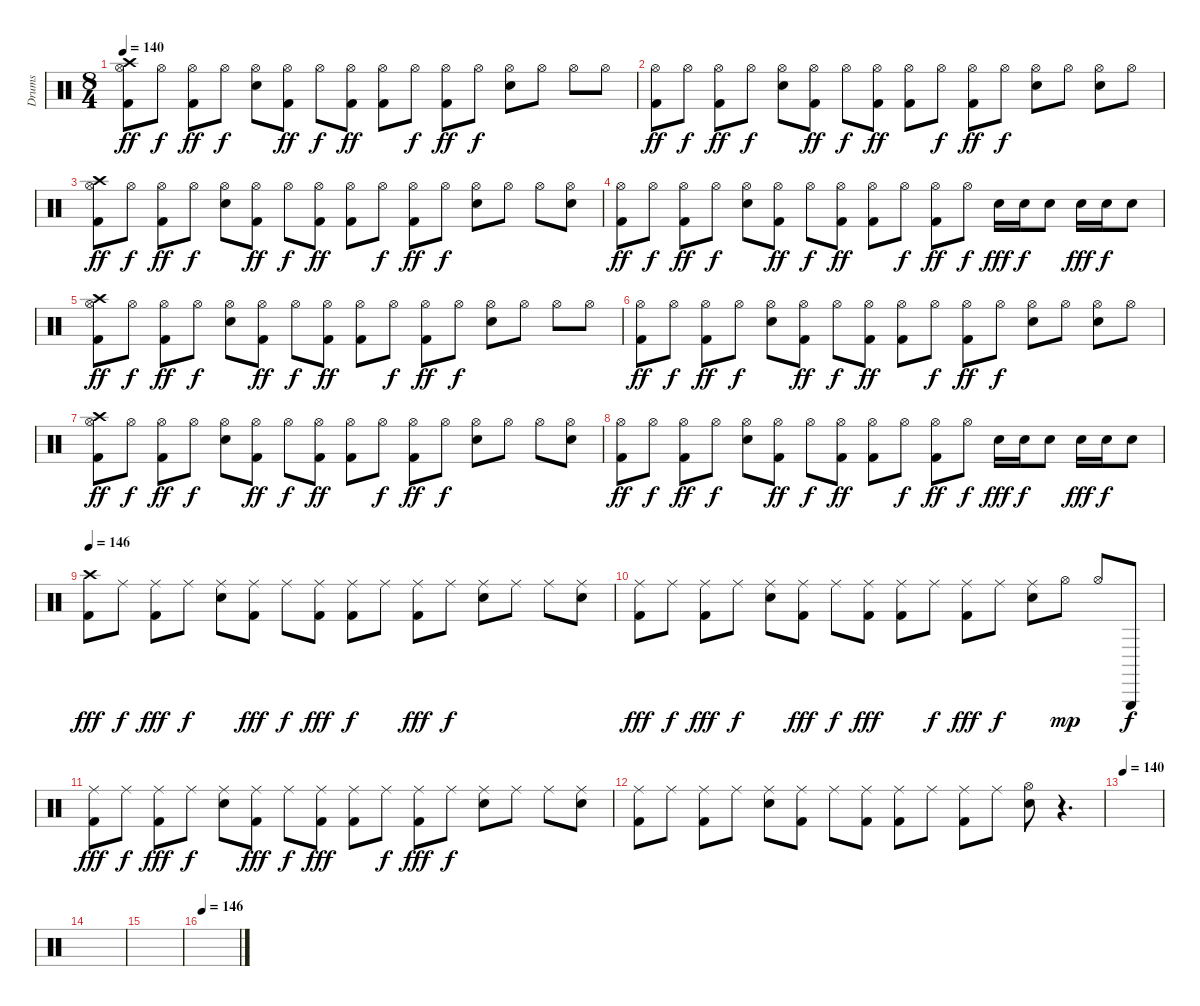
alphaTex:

\track ("Drums" "Drums") {instrument percussion}
\staff {score}
\articulation defaults
\ts (8 4)
\tempo 140
\clef neutral
\ks c
("Crash high (hit)" "Hi-Hat (open)" "Kick (hit) 2").8{dy ff} "Hi-Hat (open)".8{dy f} ("Hi-Hat (open)" "Kick (hit) 2").8{dy ff} "Hi-Hat (open)".8{dy f} ("Hi-Hat (open)" "Snare (hit) 2").8 ("Hi-Hat (open)" "Kick (hit) 2").8{dy ff} "Hi-Hat (open)".8{dy f} ("Hi-Hat (open)" "Kick (hit) 2").8{dy ff} ("Hi-Hat (open)" "Kick (hit) 2").8 "Hi-Hat (open)".8{dy f} ("Hi-Hat (open)" "Kick (hit) 2").8{dy ff} "Hi-Hat (open)".8{dy f} ("Hi-Hat (open)" "Snare (hit) 2").8 "Hi-Hat (open)".8 "Hi-Hat (open)".8 "Hi-Hat (open)".8 |
("Hi-Hat (open)" "Kick (hit) 2").8{dy ff} "Hi-Hat (open)".8{dy f} ("Hi-Hat (open)" "Kick (hit) 2").8{dy ff} "Hi-Hat (open)".8{dy f} ("Hi-Hat (open)" "Snare (hit) 2").8 ("Hi-Hat (open)" "Kick (hit) 2").8{dy ff} "Hi-Hat (open)".8{dy f} ("Hi-Hat (open)" "Kick (hit) 2").8{dy ff} ("Hi-Hat (open)" "Kick (hit) 2").8 "Hi-Hat (open)".8{dy f} ("Hi-Hat (open)" "Kick (hit) 2").8{dy ff} "Hi-Hat (open)".8{dy f} ("Hi-Hat (open)" "Snare (hit) 2").8 "Hi-Hat (open)".8 ("Hi-Hat (open)" "Snare (hit) 2").8 "Hi-Hat (open)".8 |
("Crash high (hit)" "Hi-Hat (open)" "Kick (hit) 2").8{dy ff} "Hi-Hat (open)".8{dy f} ("Hi-Hat (open)" "Kick (hit) 2").8{dy ff} "Hi-Hat (open)".8{dy f} ("Hi-Hat (open)" "Snare (hit) 2").8 ("Hi-Hat (open)" "Kick (hit) 2").8{dy ff} "Hi-Hat (open)".8{dy f} ("Hi-Hat (open)" "Kick (hit) 2").8{dy ff} ("Hi-Hat (open)" "Kick (hit) 2").8 "Hi-Hat (open)".8{dy f} ("Hi-Hat (open)" "Kick (hit) 2").8{dy ff} "Hi-Hat (open)".8{dy f} ("Hi-Hat (open)" "Snare (hit) 2").8 "Hi-Hat (open)".8 "Hi-Hat (open)".8 ("Hi-Hat (open)" "Snare (hit) 2").8 |
("Hi-Hat (open)" "Kick (hit) 2").8{dy ff} "Hi-Hat (open)".8{dy f} ("Hi-Hat (open)" "Kick (hit) 2").8{dy ff} "Hi-Hat (open)".8{dy f} ("Hi-Hat (open)" "Snare (hit) 2").8 ("Hi-Hat (open)" "Kick (hit) 2").8{dy ff} "Hi-Hat (open)".8{dy f} ("Hi-Hat (open)" "Kick (hit) 2").8{dy ff} ("Hi-Hat (open)" "Kick (hit) 2").8 "Hi-Hat (open)".8{dy f} ("Hi-Hat (open)" "Kick (hit) 2").8{dy ff} "Hi-Hat (open)".8{dy f} "Snare (hit) 2".16{dy fff} "Snare (hit) 2".16{dy f} "Snare (hit) 2".8 "Snare (hit) 2".16{dy fff} "Snare (hit) 2".16{dy f} "Snare (hit) 2".8 |
("Crash high (hit)" "Hi-Hat (open)" "Kick (hit) 2").8{dy ff} "Hi-Hat (open)".8{dy f} ("Hi-Hat (open)" "Kick (hit) 2").8{dy ff} "Hi-Hat (open)".8{dy f} ("Hi-Hat (open)" "Snare (hit) 2").8 ("Hi-Hat (open)" "Kick (hit) 2").8{dy ff} "Hi-Hat (open)".8{dy f} ("Hi-Hat (open)" "Kick (hit) 2").8{dy ff} ("Hi-Hat (open)" "Kick (hit) 2").8 "Hi-Hat (open)".8{dy f} ("Hi-Hat (open)" "Kick (hit) 2").8{dy ff} "Hi-Hat (open)".8{dy f} ("Hi-Hat (open)" "Snare (hit) 2").8 "Hi-Hat (open)".8 "Hi-Hat (open)".8 "Hi-Hat (open)".8 |
("Hi-Hat (open)" "Kick (hit) 2").8{dy ff} "Hi-Hat (open)".8{dy f} ("Hi-Hat (open)" "Kick (hit) 2").8{dy ff} "Hi-Hat (open)".8{dy f} ("Hi-Hat (open)" "Snare (hit) 2").8 ("Hi-Hat (open)" "Kick (hit) 2").8{dy ff} "Hi-Hat (open)".8{dy f} ("Hi-Hat (open)" "Kick (hit) 2").8{dy ff} ("Hi-Hat (open)" "Kick (hit) 2").8 "Hi-Hat (open)".8{dy f} ("Hi-Hat (open)" "Kick (hit) 2").8{dy ff} "Hi-Hat (open)".8{dy f} ("Hi-Hat (open)" "Snare (hit) 2").8 "Hi-Hat (open)".8 ("Hi-Hat (open)" "Snare (hit) 2").8 "Hi-Hat (open)".8 |
("Crash high (hit)" "Hi-Hat (open)" "Kick (hit) 2").8{dy ff} "Hi-Hat (open)".8{dy f} ("Hi-Hat (open)" "Kick (hit) 2").8{dy ff} "Hi-Hat (open)".8{dy f} ("Hi-Hat (open)" "Snare (hit) 2").8 ("Hi-Hat (open)" "Kick (hit) 2").8{dy ff} "Hi-Hat (open)".8{dy f} ("Hi-Hat (open)" "Kick (hit) 2").8{dy ff} ("Hi-Hat (open)" "Kick (hit) 2").8 "Hi-Hat (open)".8{dy f} ("Hi-Hat (open)" "Kick (hit) 2").8{dy ff} "Hi-Hat (open)".8{dy f} ("Hi-Hat (open)" "Snare (hit) 2").8 "Hi-Hat (open)".8 "Hi-Hat (open)".8 ("Hi-Hat (open)" "Snare (hit) 2").8 |
("Hi-Hat (open)" "Kick (hit) 2").8{dy ff} "Hi-Hat (open)".8{dy f} ("Hi-Hat (open)" "Kick (hit) 2").8{dy ff} "Hi-Hat (open)".8{dy f} ("Hi-Hat (open)" "Snare (hit) 2").8 ("Hi-Hat (open)" "Kick (hit) 2").8{dy ff} "Hi-Hat (open)".8{dy f} ("Hi-Hat (open)" "Kick (hit) 2").8{dy ff} ("Hi-Hat (open)" "Kick (hit) 2").8 "Hi-Hat (open)".8{dy f} ("Hi-Hat (open)" "Kick (hit) 2").8{dy ff} "Hi-Hat (open)".8{dy f} "Snare (hit) 2".16{dy fff} "Snare (hit) 2".16{dy f} "Snare (hit) 2".8 "Snare (hit) 2".16{dy fff} "Snare (hit) 2".16{dy f} "Snare (hit) 2".8 |
\tempo 146
("Crash high (hit)" "Kick (hit) 2").8{dy fff} "Ride (middle)".8{dy f} ("Ride (middle)" "Kick (hit) 2").8{dy fff} "Ride (middle)".8{dy f} ("Ride (middle)" "Snare (hit) 2").8 ("Ride (middle)" "Kick (hit) 2").8{dy fff} "Ride (middle)".8{dy f} ("Ride (middle)" "Kick (hit) 2").8{dy fff} ("Ride (middle)" "Kick (hit) 2").8{dy f} "Ride (middle)".8 ("Ride (middle)" "Kick (hit) 2").8{dy fff} "Ride (middle)".8{dy f} ("Ride (middle)" "Snare (hit) 2").8 "Ride (middle)".8 "Ride (middle)".8 ("Ride (middle)" "Snare (hit) 2").8 |
("Ride (middle)" "Kick (hit) 2").8{dy fff} "Ride (middle)".8{dy f} ("Ride (middle)" "Kick (hit) 2").8{dy fff} "Ride (middle)".8{dy f} ("Ride (middle)" "Snare (hit) 2").8 ("Ride (middle)" "Kick (hit) 2").8{dy fff} "Ride (middle)".8{dy f} ("Ride (middle)" "Kick (hit) 2").8{dy fff} ("Ride (middle)" "Kick (hit) 2").8 "Ride (middle)".8{dy f} ("Ride (middle)" "Kick (hit) 2").8{dy fff} "Ride (middle)".8{dy f} ("Ride (middle)" "Snare (hit) 2").8 "Hi-Hat (open)".8{dy mp} "Hi-Hat (open)".8 "Triangle (hit)".8{dy f} |
("Ride (middle)" "Kick (hit) 2").8{dy fff} "Ride (middle)".8{dy f} ("Ride (middle)" "Kick (hit) 2").8{dy fff} "Ride (middle)".8{dy f} ("Ride (middle)" "Snare (hit) 2").8 ("Ride (middle)" "Kick (hit) 2").8{dy fff} "Ride (middle)".8{dy f} ("Ride (middle)" "Kick (hit) 2").8{dy fff} ("Ride (middle)" "Kick (hit) 2").8 "Ride (middle)".8{dy f} ("Ride (middle)" "Kick (hit) 2").8{dy fff} "Ride (middle)".8{dy f} ("Ride (middle)" "Snare (hit) 2").8 "Ride (middle)".8 "Ride (middle)".8 ("Ride (middle)" "Snare (hit) 2").8 |
("Ride (middle)" "Kick (hit) 2").8 "Ride (middle)".8 ("Ride (middle)" "Kick (hit) 2").8 "Ride (middle)".8 ("Ride (middle)" "Snare (hit) 2").8 ("Ride (middle)" "Kick (hit) 2").8 "Ride (middle)".8 ("Ride (middle)" "Kick (hit) 2").8 ("Ride (middle)" "Kick (hit) 2").8 "Ride (middle)".8 ("Ride (middle)" "Kick (hit) 2").8 "Ride (middle)".8 ("Hi-Hat (open)" "Snare (hit) 2").8 r.4{d} |
\tempo 140
|
|
|
\tempo 146
